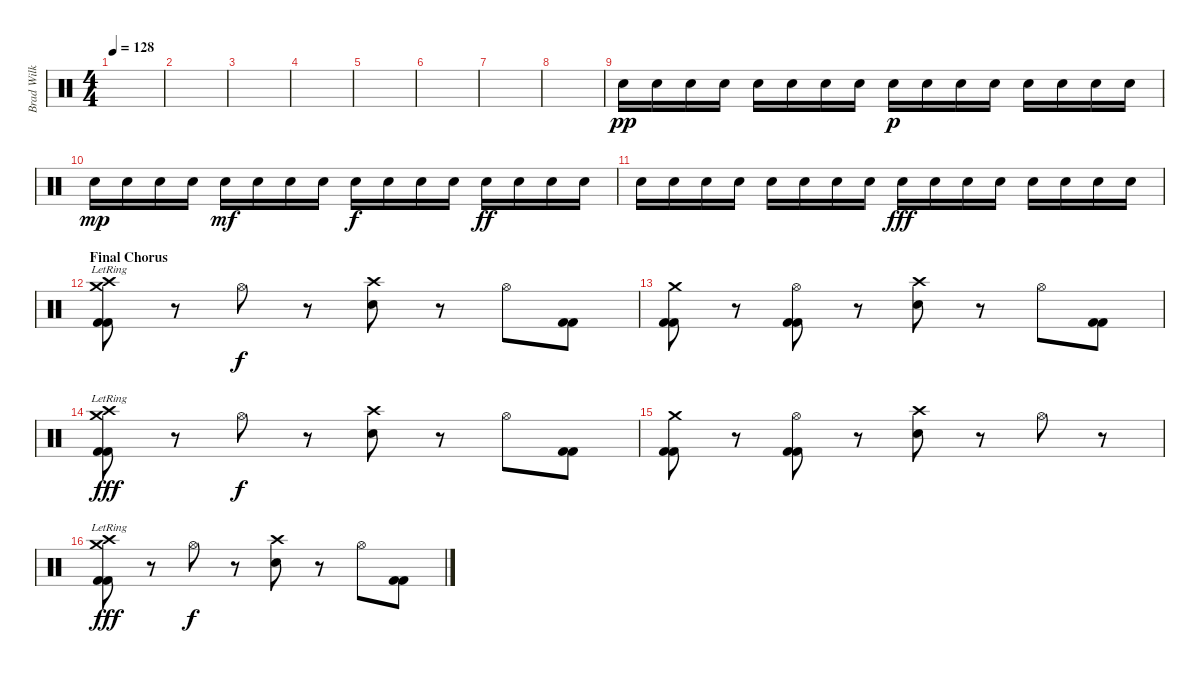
\track ("Brad Wilk" "Brad Wilk") {instrument percussion}
\staff {score}
\articulation defaults
\ts (4 4)
\tempo 128
\clef neutral
\ks c
|
|
|
|
|
|
|
|
"Electric Snare (hit)".16{dy pp} "Electric Snare (hit)".16 "Electric Snare (hit)".16 "Electric Snare (hit)".16 "Electric Snare (hit)".16 "Electric Snare (hit)".16 "Electric Snare (hit)".16 "Electric Snare (hit)".16 "Electric Snare (hit)".16{dy p} "Electric Snare (hit)".16 "Electric Snare (hit)".16 "Electric Snare (hit)".16 "Electric Snare (hit)".16 "Electric Snare (hit)".16 "Electric Snare (hit)".16 "Electric Snare (hit)".16 |
"Electric Snare (hit)".16{dy mp} "Electric Snare (hit)".16 "Electric Snare (hit)".16 "Electric Snare (hit)".16 "Electric Snare (hit)".16{dy mf} "Electric Snare (hit)".16 "Electric Snare (hit)".16 "Electric Snare (hit)".16 "Electric Snare (hit)".16{dy f} "Electric Snare (hit)".16 "Electric Snare (hit)".16 "Electric Snare (hit)".16 "Electric Snare (hit)".16{dy ff} "Electric Snare (hit)".16 "Electric Snare (hit)".16 "Electric Snare (hit)".16 |
"Electric Snare (hit)".16 "Electric Snare (hit)".16 "Electric Snare (hit)".16 "Electric Snare (hit)".16 "Electric Snare (hit)".16 "Electric Snare (hit)".16 "Electric Snare (hit)".16 "Electric Snare (hit)".16 "Electric Snare (hit)".16{dy fff} "Electric Snare (hit)".16 "Electric Snare (hit)".16 "Electric Snare (hit)".16 "Electric Snare (hit)".16 "Electric Snare (hit)".16 "Electric Snare (hit)".16 "Electric Snare (hit)".16 |
\section ("" "Final Chorus")
("Crash high (hit)"{lr} "Crash medium (hit)"{lr} "Kick (hit) 2" "Kick (hit) 2").8 r.8 "Hi-Hat (open)".8{dy f} r.8 ("Crash high (hit)" "Electric Snare (hit)").8 r.8 "Hi-Hat (open)".8 ("Kick (hit) 2" "Kick (hit) 2").8 |
("Crash medium (hit)" "Kick (hit) 2" "Kick (hit) 2").8 r.8 ("Hi-Hat (open)" "Kick (hit) 2" "Kick (hit) 2").8 r.8 ("Crash high (hit)" "Electric Snare (hit)").8 r.8 "Hi-Hat (open)".8 ("Kick (hit) 2" "Kick (hit) 2").8 |
("Crash high (hit)"{lr} "Crash medium (hit)"{lr} "Kick (hit) 2" "Kick (hit) 2").8{dy fff} r.8 "Hi-Hat (open)".8{dy f} r.8 ("Crash high (hit)" "Electric Snare (hit)").8 r.8 "Hi-Hat (open)".8 ("Kick (hit) 2" "Kick (hit) 2").8 |
("Crash medium (hit)" "Kick (hit) 2" "Kick (hit) 2").8 r.8 ("Hi-Hat (open)" "Kick (hit) 2" "Kick (hit) 2").8 r.8 ("Crash high (hit)" "Electric Snare (hit)").8 r.8 "Hi-Hat (open)".8 r.8 |
("Crash high (hit)"{lr} "Crash medium (hit)"{lr} "Kick (hit) 2" "Kick (hit) 2").8{dy fff} r.8 "Hi-Hat (open)".8{dy f} r.8 ("Crash high (hit)" "Electric Snare (hit)").8 r.8 "Hi-Hat (open)".8 ("Kick (hit) 2" "Kick (hit) 2").8
